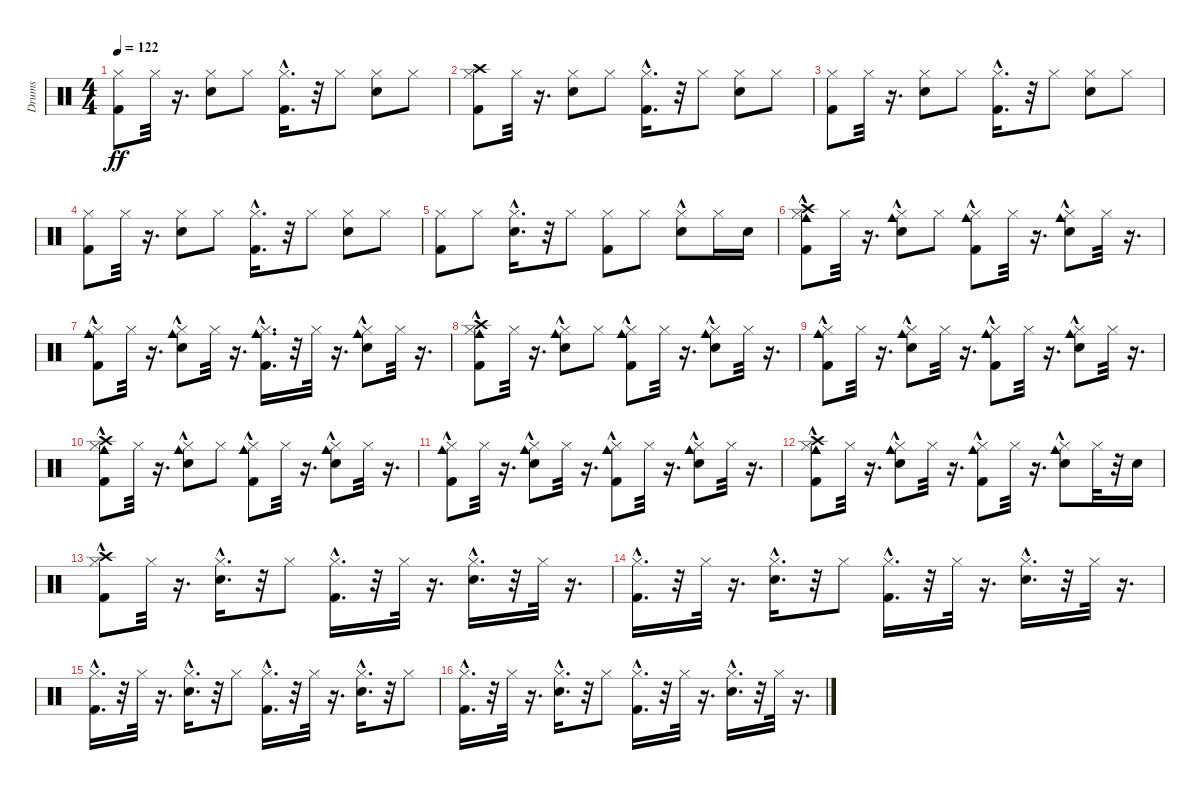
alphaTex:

\track ("Drums" "Drums") {instrument percussion}
\staff {score}
\articulation defaults
\ts (4 4)
\tempo 122
\clef neutral
\ks c
("Kick (hit) 2" "Hi-Hat (closed)").8{dy ff} "Hi-Hat (closed)".32 r.16{d} ("Snare (hit) 2" "Hi-Hat (closed)").8 "Hi-Hat (closed)".8 ("Kick (hit) 2"{hac} "Hi-Hat (closed)"{hac}).16{d} r.32 "Hi-Hat (closed)".8 ("Snare (hit) 2" "Hi-Hat (closed)").8 "Hi-Hat (closed)".8 |
("Kick (hit) 2" "Hi-Hat (closed)" "Crash high (hit)").8 "Hi-Hat (closed)".32 r.16{d} ("Snare (hit) 2" "Hi-Hat (closed)").8 "Hi-Hat (closed)".8 ("Kick (hit) 2"{hac} "Hi-Hat (closed)"{hac}).16{d} r.32 "Hi-Hat (closed)".8 ("Snare (hit) 2" "Hi-Hat (closed)").8 "Hi-Hat (closed)".8 |
("Kick (hit) 2" "Hi-Hat (closed)").8 "Hi-Hat (closed)".32 r.16{d} ("Snare (hit) 2" "Hi-Hat (closed)").8 "Hi-Hat (closed)".8 ("Kick (hit) 2"{hac} "Hi-Hat (closed)"{hac}).16{d} r.32 "Hi-Hat (closed)".8 ("Snare (hit) 2" "Hi-Hat (closed)").8 "Hi-Hat (closed)".8 |
("Kick (hit) 2" "Hi-Hat (closed)").8 "Hi-Hat (closed)".32 r.16{d} ("Snare (hit) 2" "Hi-Hat (closed)").8 "Hi-Hat (closed)".8 ("Kick (hit) 2"{hac} "Hi-Hat (closed)"{hac}).16{d} r.32 "Hi-Hat (closed)".8 ("Snare (hit) 2" "Hi-Hat (closed)").8 "Hi-Hat (closed)".8 |
("Kick (hit) 2" "Hi-Hat (closed)").8 "Hi-Hat (closed)".8 ("Snare (hit) 2"{hac} "Hi-Hat (closed)"{hac}).16{d} r.32 "Hi-Hat (closed)".8 ("Kick (hit) 2" "Hi-Hat (closed)").8 "Hi-Hat (closed)".8 ("Snare (hit) 2"{hac} "Hi-Hat (closed)").8 "Hi-Hat (closed)".16 "Snare (hit) 2".16 |
("Kick (hit) 2"{hac} "Hi-Hat (closed)"{hac} "Crash high (hit)" "Cowbell medium (hit)").8 "Hi-Hat (closed)".32 r.16{d} ("Snare (hit) 2"{hac} "Hi-Hat (closed)"{hac} "Cowbell medium (hit)").8 "Hi-Hat (closed)".8 ("Kick (hit) 2"{hac} "Hi-Hat (closed)"{hac} "Cowbell medium (hit)").8 "Hi-Hat (closed)".32 r.16{d} ("Cowbell medium (hit)" "Snare (hit) 2"{hac} "Hi-Hat (closed)"{hac}).8 "Hi-Hat (closed)".32 r.16{d} |
("Kick (hit) 2"{hac} "Hi-Hat (closed)"{hac} "Cowbell medium (hit)").8 "Hi-Hat (closed)".32 r.16{d} ("Snare (hit) 2"{hac} "Hi-Hat (closed)"{hac} "Cowbell medium (hit)").8 "Hi-Hat (closed)".32 r.16{d} ("Kick (hit) 2"{hac} "Hi-Hat (closed)"{hac} "Cowbell medium (hit)"{hac}).16{d} r.32 "Hi-Hat (closed)".32 r.16{d} ("Cowbell medium (hit)" "Snare (hit) 2"{hac} "Hi-Hat (closed)"{hac}).8 "Hi-Hat (closed)".32 r.16{d} |
("Kick (hit) 2"{hac} "Hi-Hat (closed)"{hac} "Crash high (hit)" "Cowbell medium (hit)").8 "Hi-Hat (closed)".32 r.16{d} ("Snare (hit) 2"{hac} "Hi-Hat (closed)"{hac} "Cowbell medium (hit)").8 "Hi-Hat (closed)".8 ("Kick (hit) 2"{hac} "Hi-Hat (closed)"{hac} "Cowbell medium (hit)").8 "Hi-Hat (closed)".32 r.16{d} ("Cowbell medium (hit)" "Snare (hit) 2"{hac} "Hi-Hat (closed)"{hac}).8 "Hi-Hat (closed)".32 r.16{d} |
("Kick (hit) 2"{hac} "Hi-Hat (closed)"{hac} "Cowbell medium (hit)").8 "Hi-Hat (closed)".32 r.16{d} ("Snare (hit) 2"{hac} "Hi-Hat (closed)"{hac} "Cowbell medium (hit)").8 "Hi-Hat (closed)".32 r.16{d} ("Kick (hit) 2"{hac} "Hi-Hat (closed)"{hac} "Cowbell medium (hit)").8 "Hi-Hat (closed)".32 r.16{d} ("Cowbell medium (hit)" "Snare (hit) 2"{hac} "Hi-Hat (closed)"{hac}).8 "Hi-Hat (closed)".32 r.16{d} |
("Kick (hit) 2"{hac} "Hi-Hat (closed)"{hac} "Crash high (hit)" "Cowbell medium (hit)").8 "Hi-Hat (closed)".32 r.16{d} ("Snare (hit) 2"{hac} "Hi-Hat (closed)"{hac} "Cowbell medium (hit)").8 "Hi-Hat (closed)".8 ("Kick (hit) 2"{hac} "Hi-Hat (closed)"{hac} "Cowbell medium (hit)").8 "Hi-Hat (closed)".32 r.16{d} ("Cowbell medium (hit)" "Snare (hit) 2"{hac} "Hi-Hat (closed)"{hac}).8 "Hi-Hat (closed)".32 r.16{d} |
("Kick (hit) 2"{hac} "Hi-Hat (closed)"{hac} "Cowbell medium (hit)").8 "Hi-Hat (closed)".32 r.16{d} ("Snare (hit) 2"{hac} "Hi-Hat (closed)"{hac} "Cowbell medium (hit)").8 "Hi-Hat (closed)".32 r.16{d} ("Kick (hit) 2"{hac} "Hi-Hat (closed)"{hac} "Cowbell medium (hit)").8 "Hi-Hat (closed)".32 r.16{d} ("Cowbell medium (hit)" "Snare (hit) 2"{hac} "Hi-Hat (closed)"{hac}).8 "Hi-Hat (closed)".32 r.16{d} |
("Kick (hit) 2"{hac} "Hi-Hat (closed)"{hac} "Crash high (hit)" "Cowbell medium (hit)").8 "Hi-Hat (closed)".32 r.16{d} ("Snare (hit) 2"{hac} "Hi-Hat (closed)"{hac} "Cowbell medium (hit)").8 "Hi-Hat (closed)".32 r.16{d} ("Kick (hit) 2"{hac} "Hi-Hat (closed)"{hac} "Cowbell medium (hit)").8 "Hi-Hat (closed)".32 r.16{d} ("Cowbell medium (hit)" "Snare (hit) 2"{hac} "Hi-Hat (closed)"{hac}).8 "Hi-Hat (closed)".32 r.32 "Snare (hit) 2".16 |
("Crash high (hit)" "Kick (hit) 2"{hac} "Hi-Hat (closed)"{hac}).8 "Hi-Hat (closed)".32 r.16{d} ("Snare (hit) 2"{hac} "Hi-Hat (closed)"{hac}).16{d} r.32 "Hi-Hat (closed)".8 ("Kick (hit) 2"{hac} "Hi-Hat (closed)"{hac}).16{d} r.32 "Hi-Hat (closed)".32 r.16{d} ("Snare (hit) 2"{hac} "Hi-Hat (closed)"{hac}).16{d} r.32 "Hi-Hat (closed)".32 r.16{d} |
("Kick (hit) 2"{hac} "Hi-Hat (closed)"{hac}).16{d} r.32 "Hi-Hat (closed)".32 r.16{d} ("Snare (hit) 2"{hac} "Hi-Hat (closed)"{hac}).16{d} r.32 "Hi-Hat (closed)".8 ("Kick (hit) 2"{hac} "Hi-Hat (closed)"{hac}).16{d} r.32 "Hi-Hat (closed)".32 r.16{d} ("Snare (hit) 2"{hac} "Hi-Hat (closed)"{hac}).16{d} r.32 "Hi-Hat (closed)".32 r.16{d} |
("Kick (hit) 2"{hac} "Hi-Hat (closed)"{hac}).16{d} r.32 "Hi-Hat (closed)".32 r.16{d} ("Snare (hit) 2"{hac} "Hi-Hat (closed)"{hac}).16{d} r.32 "Hi-Hat (closed)".8 ("Kick (hit) 2"{hac} "Hi-Hat (closed)"{hac}).16{d} r.32 "Hi-Hat (closed)".32 r.16{d} ("Snare (hit) 2"{hac} "Hi-Hat (closed)"{hac}).16{d} r.32 "Hi-Hat (closed)".8 |
("Kick (hit) 2"{hac} "Hi-Hat (closed)"{hac}).16{d} r.32 "Hi-Hat (closed)".32 r.16{d} ("Snare (hit) 2"{hac} "Hi-Hat (closed)"{hac}).16{d} r.32 "Hi-Hat (closed)".8 ("Kick (hit) 2"{hac} "Hi-Hat (closed)"{hac}).16{d} r.32 "Hi-Hat (closed)".32 r.16{d} ("Snare (hit) 2"{hac} "Hi-Hat (closed)"{hac}).16{d} r.32 "Hi-Hat (closed)".32 r.16{d}
